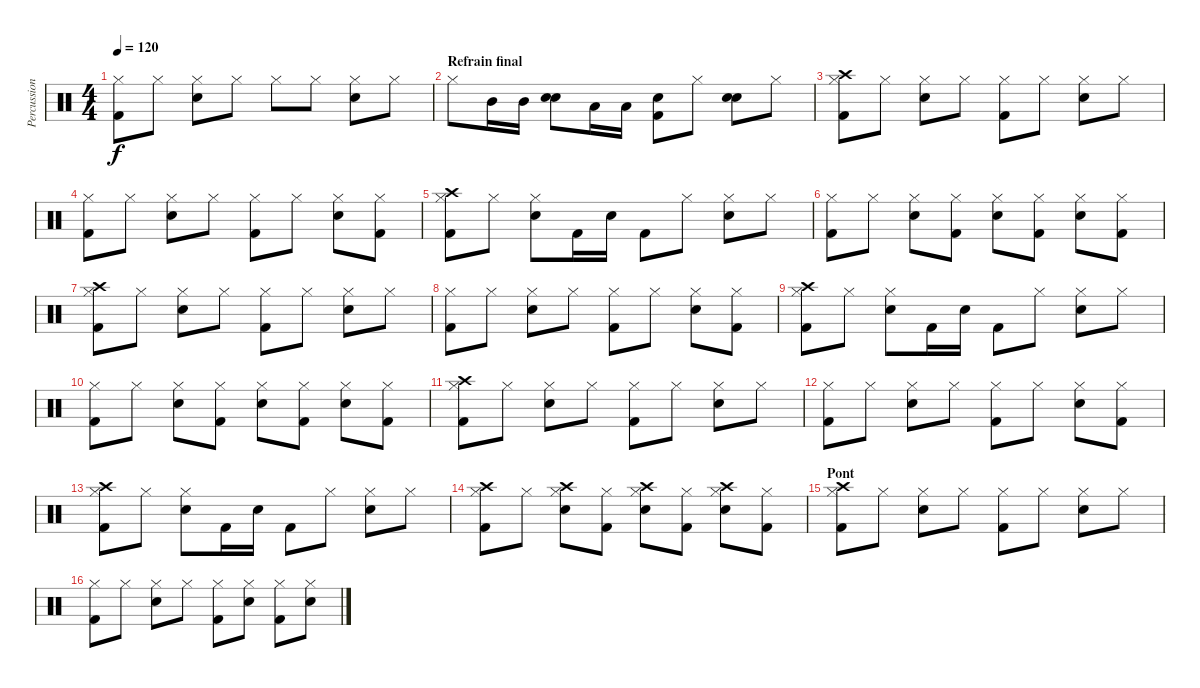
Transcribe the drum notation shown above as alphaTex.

\track ("Percussions" "Percussion") {instrument percussion}
\staff {score}
\articulation defaults
\ts (4 4)
\tempo 120
\clef neutral
\ks c
("Hi-Hat (closed)" "Kick (hit) 2").8{dy f} "Hi-Hat (closed)".8 ("Hi-Hat (closed)" "Electric Snare (hit)").8 "Hi-Hat (closed)".8 "Hi-Hat (closed)".8 "Hi-Hat (closed)".8 ("Hi-Hat (closed)" "Electric Snare (hit)").8 "Hi-Hat (closed)".8 |
\section ("" "Refrain final")
"Hi-Hat (closed)".8 "Mid Tom (hit)".16 "Mid Tom (hit)".16 ("Electric Snare (hit)" "Electric Snare (hit)").8 "Low Tom (hit)".16 "Low Tom (hit)".16 ("Snare (hit) 2" "Kick (hit) 2").8 "Hi-Hat (closed)".8 ("Electric Snare (hit)" "Electric Snare (hit)").8 "Hi-Hat (closed)".8 |
("Crash high (hit)" "Hi-Hat (closed)" "Kick (hit) 2").8 "Hi-Hat (closed)".8 ("Hi-Hat (closed)" "Electric Snare (hit)").8 "Hi-Hat (closed)".8 ("Hi-Hat (closed)" "Kick (hit) 2").8 "Hi-Hat (closed)".8 ("Hi-Hat (closed)" "Electric Snare (hit)").8 "Hi-Hat (closed)".8 |
("Hi-Hat (closed)" "Kick (hit) 2").8 "Hi-Hat (closed)".8 ("Hi-Hat (closed)" "Electric Snare (hit)").8 "Hi-Hat (closed)".8 ("Hi-Hat (closed)" "Kick (hit) 2").8 "Hi-Hat (closed)".8 ("Hi-Hat (closed)" "Electric Snare (hit)").8 ("Hi-Hat (closed)" "Kick (hit) 2").8 |
("Crash high (hit)" "Hi-Hat (closed)" "Kick (hit) 2").8 "Hi-Hat (closed)".8 ("Hi-Hat (closed)" "Electric Snare (hit)").8 "Kick (hit) 2".16 "Electric Snare (hit)".16 "Kick (hit) 2".8 "Hi-Hat (closed)".8 ("Hi-Hat (closed)" "Electric Snare (hit)").8 "Hi-Hat (closed)".8 |
("Hi-Hat (closed)" "Kick (hit) 2").8 "Hi-Hat (closed)".8 ("Hi-Hat (closed)" "Electric Snare (hit)").8 ("Hi-Hat (closed)" "Kick (hit) 2").8 ("Hi-Hat (closed)" "Electric Snare (hit)").8 ("Hi-Hat (closed)" "Kick (hit) 2").8 ("Hi-Hat (closed)" "Electric Snare (hit)").8 ("Hi-Hat (closed)" "Kick (hit) 2").8 |
("Crash high (hit)" "Hi-Hat (closed)" "Kick (hit) 2").8 "Hi-Hat (closed)".8 ("Hi-Hat (closed)" "Electric Snare (hit)").8 "Hi-Hat (closed)".8 ("Hi-Hat (closed)" "Kick (hit) 2").8 "Hi-Hat (closed)".8 ("Hi-Hat (closed)" "Electric Snare (hit)").8 "Hi-Hat (closed)".8 |
("Hi-Hat (closed)" "Kick (hit) 2").8 "Hi-Hat (closed)".8 ("Hi-Hat (closed)" "Electric Snare (hit)").8 "Hi-Hat (closed)".8 ("Hi-Hat (closed)" "Kick (hit) 2").8 "Hi-Hat (closed)".8 ("Hi-Hat (closed)" "Electric Snare (hit)").8 ("Hi-Hat (closed)" "Kick (hit) 2").8 |
("Crash high (hit)" "Hi-Hat (closed)" "Kick (hit) 2").8 "Hi-Hat (closed)".8 ("Hi-Hat (closed)" "Electric Snare (hit)").8 "Kick (hit) 2".16 "Electric Snare (hit)".16 "Kick (hit) 2".8 "Hi-Hat (closed)".8 ("Hi-Hat (closed)" "Electric Snare (hit)").8 "Hi-Hat (closed)".8 |
("Hi-Hat (closed)" "Kick (hit) 2").8 "Hi-Hat (closed)".8 ("Hi-Hat (closed)" "Electric Snare (hit)").8 ("Hi-Hat (closed)" "Kick (hit) 2").8 ("Hi-Hat (closed)" "Electric Snare (hit)").8 ("Hi-Hat (closed)" "Kick (hit) 2").8 ("Hi-Hat (closed)" "Electric Snare (hit)").8 ("Hi-Hat (closed)" "Kick (hit) 2").8 |
("Crash high (hit)" "Hi-Hat (closed)" "Kick (hit) 2").8 "Hi-Hat (closed)".8 ("Hi-Hat (closed)" "Electric Snare (hit)").8 "Hi-Hat (closed)".8 ("Hi-Hat (closed)" "Kick (hit) 2").8 "Hi-Hat (closed)".8 ("Hi-Hat (closed)" "Electric Snare (hit)").8 "Hi-Hat (closed)".8 |
("Hi-Hat (closed)" "Kick (hit) 2").8 "Hi-Hat (closed)".8 ("Hi-Hat (closed)" "Electric Snare (hit)").8 "Hi-Hat (closed)".8 ("Hi-Hat (closed)" "Kick (hit) 2").8 "Hi-Hat (closed)".8 ("Hi-Hat (closed)" "Electric Snare (hit)").8 ("Hi-Hat (closed)" "Kick (hit) 2").8 |
("Crash high (hit)" "Hi-Hat (closed)" "Kick (hit) 2").8 "Hi-Hat (closed)".8 ("Hi-Hat (closed)" "Electric Snare (hit)").8 "Kick (hit) 2".16 "Electric Snare (hit)".16 "Kick (hit) 2".8 "Hi-Hat (closed)".8 ("Hi-Hat (closed)" "Electric Snare (hit)").8 "Hi-Hat (closed)".8 |
("Crash high (hit)" "Hi-Hat (closed)" "Kick (hit) 2").8 "Hi-Hat (closed)".8 ("Crash high (hit)" "Hi-Hat (closed)" "Electric Snare (hit)").8 ("Hi-Hat (closed)" "Kick (hit) 2").8 ("Crash high (hit)" "Hi-Hat (closed)" "Electric Snare (hit)").8 ("Hi-Hat (closed)" "Kick (hit) 2").8 ("Crash high (hit)" "Hi-Hat (closed)" "Electric Snare (hit)").8 ("Hi-Hat (closed)" "Kick (hit) 2").8 |
\section ("" "Pont")
("Crash high (hit)" "Hi-Hat (closed)" "Kick (hit) 2").8 "Hi-Hat (closed)".8 ("Hi-Hat (closed)" "Electric Snare (hit)").8 "Hi-Hat (closed)".8 ("Hi-Hat (closed)" "Kick (hit) 2").8 "Hi-Hat (closed)".8 ("Hi-Hat (closed)" "Electric Snare (hit)").8 "Hi-Hat (closed)".8 |
("Hi-Hat (closed)" "Kick (hit) 2").8 "Hi-Hat (closed)".8 ("Hi-Hat (closed)" "Electric Snare (hit)").8 "Hi-Hat (closed)".8 ("Hi-Hat (closed)" "Kick (hit) 2").8 ("Hi-Hat (closed)" "Electric Snare (hit)").8 ("Hi-Hat (closed)" "Kick (hit) 2").8 ("Hi-Hat (closed)" "Electric Snare (hit)").8
